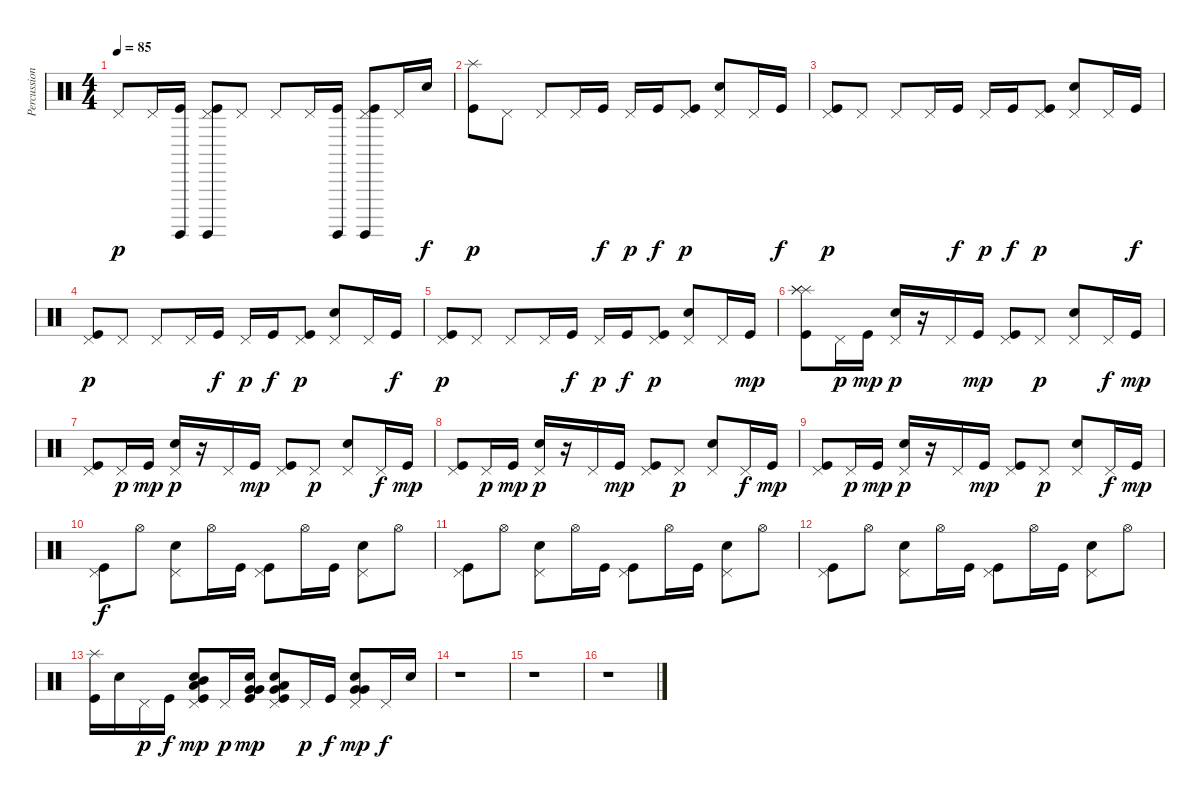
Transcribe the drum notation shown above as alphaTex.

\track ("Percussions" "Percussion") {instrument percussion}
\staff {score}
\articulation defaults
\ts (4 4)
\tempo 85
\clef neutral
\ks c "Pedal Hi-Hat (hit)".8{dy p} "Pedal Hi-Hat (hit)".16
("Surdo (hit)" "Kick (hit)").16 ("Pedal Hi-Hat (hit)" "Surdo (hit)" "Kick (hit)").8 "Pedal Hi-Hat (hit)".8 "Pedal Hi-Hat (hit)".8 "Pedal Hi-Hat (hit)".16 ("Surdo (hit)" "Kick (hit)").16 ("Pedal Hi-Hat (hit)" "Surdo (hit)" "Kick (hit)").8 "Pedal Hi-Hat (hit)".16 "Snare (hit) 2".16{dy f} |
("Splash (hit)" "Kick (hit)").8{dy p} "Pedal Hi-Hat (hit)".8 "Pedal Hi-Hat (hit)".8 "Pedal Hi-Hat (hit)".16 "Kick (hit)".16{dy f} "Pedal Hi-Hat (hit)".16{dy p} "Kick (hit)".16{dy f} ("Pedal Hi-Hat (hit)" "Kick (hit)").8{dy p} ("Pedal Hi-Hat (hit)" "Snare (hit) 2").8 "Pedal Hi-Hat (hit)".16 "Kick (hit)".16{dy f} |
("Pedal Hi-Hat (hit)" "Kick (hit)").8{dy p} "Pedal Hi-Hat (hit)".8 "Pedal Hi-Hat (hit)".8 "Pedal Hi-Hat (hit)".16 "Kick (hit)".16{dy f} "Pedal Hi-Hat (hit)".16{dy p} "Kick (hit)".16{dy f} ("Pedal Hi-Hat (hit)" "Kick (hit)").8{dy p} ("Pedal Hi-Hat (hit)" "Snare (hit) 2").8 "Pedal Hi-Hat (hit)".16 "Kick (hit)".16{dy f} |
("Pedal Hi-Hat (hit)" "Kick (hit)").8{dy p} "Pedal Hi-Hat (hit)".8 "Pedal Hi-Hat (hit)".8 "Pedal Hi-Hat (hit)".16 "Kick (hit)".16{dy f} "Pedal Hi-Hat (hit)".16{dy p} "Kick (hit)".16{dy f} ("Pedal Hi-Hat (hit)" "Kick (hit)").8{dy p} ("Pedal Hi-Hat (hit)" "Snare (hit) 2").8 "Pedal Hi-Hat (hit)".16 "Kick (hit)".16{dy f} |
("Pedal Hi-Hat (hit)" "Kick (hit)").8{dy p} "Pedal Hi-Hat (hit)".8 "Pedal Hi-Hat (hit)".8 "Pedal Hi-Hat (hit)".16 "Kick (hit)".16{dy f} "Pedal Hi-Hat (hit)".16{dy p} "Kick (hit)".16{dy f} ("Pedal Hi-Hat (hit)" "Kick (hit)").8{dy p} ("Pedal Hi-Hat (hit)" "Snare (hit) 2").8 "Pedal Hi-Hat (hit)".16 "Kick (hit)".16{dy mp} |
("Splash (hit)" "Splash (hit)" "Splash (hit)" "Kick (hit)").8 "Pedal Hi-Hat (hit)".16{dy p} "Kick (hit)".16{dy mp} ("Pedal Hi-Hat (hit)" "Snare (hit) 2").16{dy p} r.16 "Pedal Hi-Hat (hit)".16 "Kick (hit)".16{dy mp} ("Pedal Hi-Hat (hit)" "Kick (hit)").8 "Pedal Hi-Hat (hit)".8{dy p} ("Pedal Hi-Hat (hit)" "Snare (hit) 2").8 "Pedal Hi-Hat (hit)".16{dy f} "Kick (hit)".16{dy mp} |
("Pedal Hi-Hat (hit)" "Kick (hit)").8 "Pedal Hi-Hat (hit)".16{dy p} "Kick (hit)".16{dy mp} ("Pedal Hi-Hat (hit)" "Snare (hit) 2").16{dy p} r.16 "Pedal Hi-Hat (hit)".16 "Kick (hit)".16{dy mp} ("Pedal Hi-Hat (hit)" "Kick (hit)").8 "Pedal Hi-Hat (hit)".8{dy p} ("Pedal Hi-Hat (hit)" "Snare (hit) 2").8 "Pedal Hi-Hat (hit)".16{dy f} "Kick (hit)".16{dy mp} |
("Pedal Hi-Hat (hit)" "Kick (hit)").8 "Pedal Hi-Hat (hit)".16{dy p} "Kick (hit)".16{dy mp} ("Pedal Hi-Hat (hit)" "Snare (hit) 2").16{dy p} r.16 "Pedal Hi-Hat (hit)".16 "Kick (hit)".16{dy mp} ("Pedal Hi-Hat (hit)" "Kick (hit)").8 "Pedal Hi-Hat (hit)".8{dy p} ("Pedal Hi-Hat (hit)" "Snare (hit) 2").8 "Pedal Hi-Hat (hit)".16{dy f} "Kick (hit)".16{dy mp} |
("Pedal Hi-Hat (hit)" "Kick (hit)").8 "Pedal Hi-Hat (hit)".16{dy p} "Kick (hit)".16{dy mp} ("Pedal Hi-Hat (hit)" "Snare (hit) 2").16{dy p} r.16 "Pedal Hi-Hat (hit)".16 "Kick (hit)".16{dy mp} ("Pedal Hi-Hat (hit)" "Kick (hit)").8 "Pedal Hi-Hat (hit)".8{dy p} ("Pedal Hi-Hat (hit)" "Snare (hit) 2").8 "Pedal Hi-Hat (hit)".16{dy f} "Kick (hit)".16{dy mp} |
("Pedal Hi-Hat (hit)" "Kick (hit)").8{dy f} "Hi-Hat (open)".8 ("Pedal Hi-Hat (hit)" "Snare (hit) 2").8 "Hi-Hat (open)".16 "Kick (hit)".16 ("Pedal Hi-Hat (hit)" "Kick (hit)").8 "Hi-Hat (open)".16 "Kick (hit)".16 ("Pedal Hi-Hat (hit)" "Snare (hit) 2").8 "Hi-Hat (open)".8 |
("Pedal Hi-Hat (hit)" "Kick (hit)").8 "Hi-Hat (open)".8 ("Pedal Hi-Hat (hit)" "Snare (hit) 2").8 "Hi-Hat (open)".16 "Kick (hit)".16 ("Pedal Hi-Hat (hit)" "Kick (hit)").8 "Hi-Hat (open)".16 "Kick (hit)".16 ("Pedal Hi-Hat (hit)" "Snare (hit) 2").8 "Hi-Hat (open)".8 |
("Pedal Hi-Hat (hit)" "Kick (hit)").8 "Hi-Hat (open)".8 ("Pedal Hi-Hat (hit)" "Snare (hit) 2").8 "Hi-Hat (open)".16 "Kick (hit)".16 ("Pedal Hi-Hat (hit)" "Kick (hit)").8 "Hi-Hat (open)".16 "Kick (hit)".16 ("Pedal Hi-Hat (hit)" "Snare (hit) 2").8 "Hi-Hat (open)".8 |
("Splash (hit)" "Kick (hit)").16 "Snare (hit) 2".16 "Pedal Hi-Hat (hit)".16{dy p} "Kick (hit)".16{dy f} ("Pedal Hi-Hat (hit)" "Snare (hit) 2" "Mid Tom (hit)" "Low Tom (hit)" "Kick (hit)").8{dy mp} "Pedal Hi-Hat (hit)".16{dy p} ("Snare (hit) 2" "Very Low Tom (hit)" "Very Low Tom (hit)" "Kick (hit)").16{dy mp} ("Pedal Hi-Hat (hit)" "Snare (hit) 2" "Very Low Tom (hit)" "Low Floor Tom (hit)" "Kick (hit)").8 "Pedal Hi-Hat (hit)".16{dy p} "Kick (hit)".16{dy f} ("Pedal Hi-Hat (hit)" "Snare (hit) 2" "Very Low Tom (hit)" "Very Low Tom (hit)").8{dy mp} "Pedal Hi-Hat (hit)".16{dy f} "Snare (hit) 2".16 |
r.1 |
r.1 |
r.1
